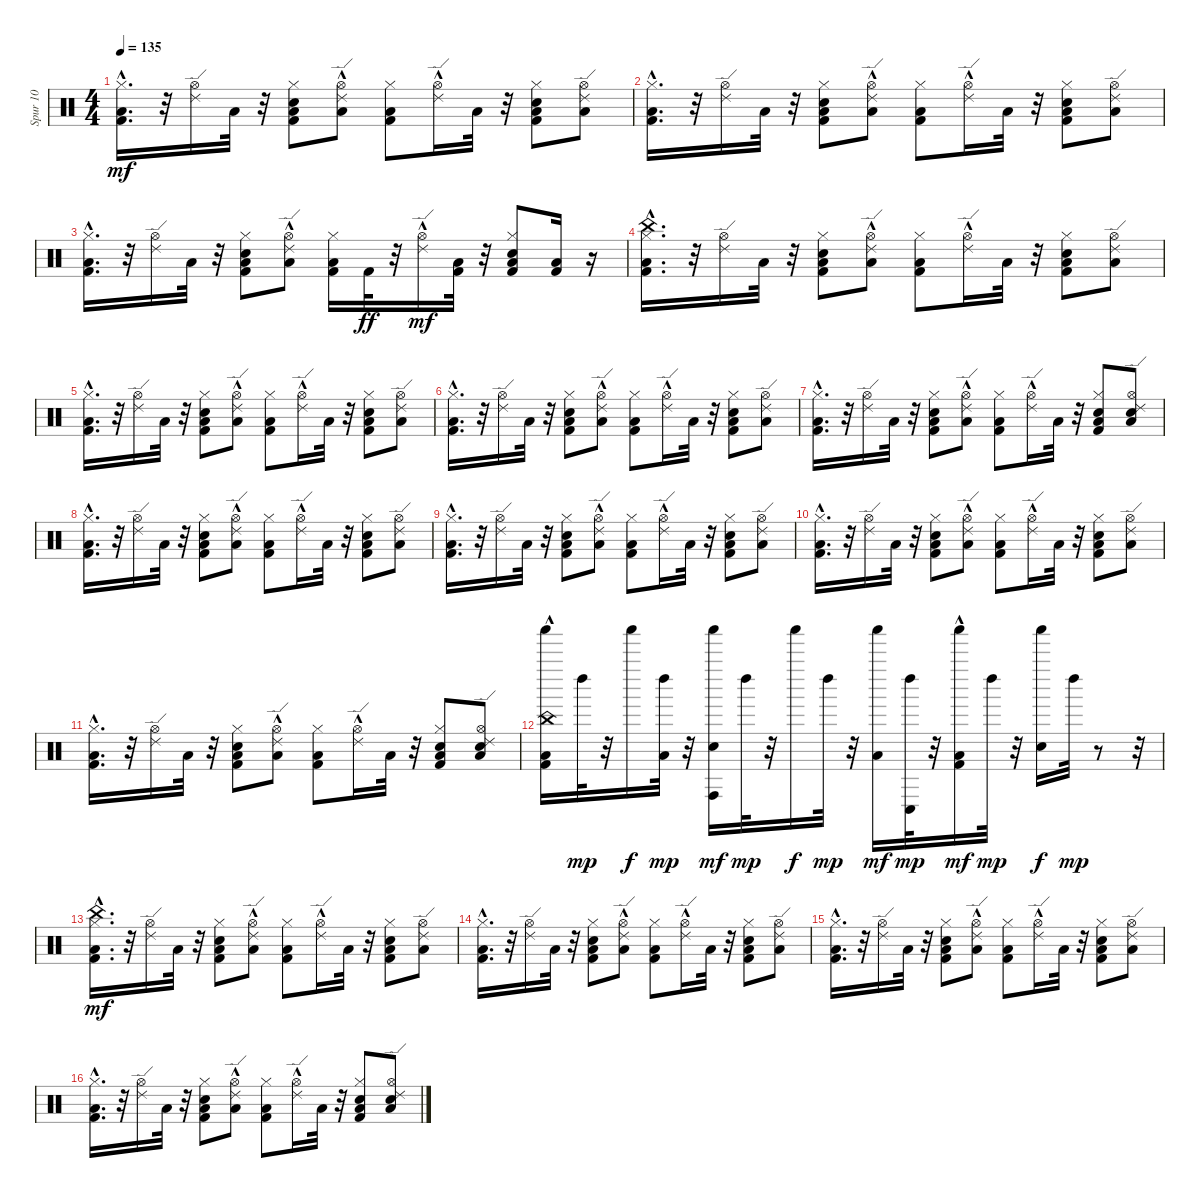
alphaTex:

\track ("Spur 10" "Spur 10") {instrument percussion}
\staff {score}
\articulation defaults
\ts (4 4)
\tempo 135
\clef neutral
\ks c
("Kick (hit) 2" "Low Tom (hit)" "Hi-Hat (closed)"{hac}).16{d dy mf} r.32 ("Ride (edge) 2" "Hi-Hat (open)").16 "Low Tom (hit)".32 r.32 ("Kick (hit) 2" "Hand Clap (hit)" "Low Tom (hit)" "Hi-Hat (closed)").8 ("Low Tom (hit)" "Hi-Hat (open)" "Ride (edge) 2"{hac}).8 ("Kick (hit) 2" "Low Tom (hit)" "Hi-Hat (closed)").8 ("Hi-Hat (open)" "Ride (edge) 2"{hac}).16 "Low Tom (hit)".32 r.32 ("Kick (hit) 2" "Hand Clap (hit)" "Low Tom (hit)" "Hi-Hat (closed)").8 ("Low Tom (hit)" "Hi-Hat (open)" "Ride (edge) 2").8 |
("Kick (hit) 2" "Low Tom (hit)" "Hi-Hat (closed)"{hac}).16{d} r.32 ("Ride (edge) 2" "Hi-Hat (open)").16 "Low Tom (hit)".32 r.32 ("Kick (hit) 2" "Hand Clap (hit)" "Low Tom (hit)" "Hi-Hat (closed)").8 ("Low Tom (hit)" "Hi-Hat (open)" "Ride (edge) 2"{hac}).8 ("Kick (hit) 2" "Low Tom (hit)" "Hi-Hat (closed)").8 ("Hi-Hat (open)" "Ride (edge) 2"{hac}).16 "Low Tom (hit)".32 r.32 ("Kick (hit) 2" "Hand Clap (hit)" "Low Tom (hit)" "Hi-Hat (closed)").8 ("Low Tom (hit)" "Hi-Hat (open)" "Ride (edge) 2").8 |
("Kick (hit) 2" "Low Tom (hit)" "Hi-Hat (closed)"{hac}).16{d} r.32 ("Ride (edge) 2" "Hi-Hat (open)").16 "Low Tom (hit)".32 r.32 ("Kick (hit) 2" "Hand Clap (hit)" "Low Tom (hit)" "Hi-Hat (closed)").8 ("Low Tom (hit)" "Hi-Hat (open)" "Ride (edge) 2"{hac}).8 ("Kick (hit) 2" "Low Tom (hit)" "Hi-Hat (closed)").16 "Kick (hit) 2".32{dy ff} r.32 ("Hi-Hat (open)" "Ride (edge) 2"{hac}).16{dy mf} ("Kick (hit) 2" "Low Tom (hit)").32 r.32 ("Kick (hit) 2" "Hand Clap (hit)" "Low Tom (hit)" "Hi-Hat (closed)").8 ("Kick (hit) 2" "Low Tom (hit)").16 r.16 |
("Kick (hit) 2" "Low Tom (hit)" "Hi-Hat (closed)"{hac} "China (hit)").16{d} r.32 ("Ride (edge) 2" "Hi-Hat (open)").16 "Low Tom (hit)".32 r.32 ("Kick (hit) 2" "Hand Clap (hit)" "Low Tom (hit)" "Hi-Hat (closed)").8 ("Low Tom (hit)" "Hi-Hat (open)" "Ride (edge) 2"{hac}).8 ("Kick (hit) 2" "Low Tom (hit)" "Hi-Hat (closed)").8 ("Hi-Hat (open)" "Ride (edge) 2"{hac}).16 "Low Tom (hit)".32 r.32 ("Kick (hit) 2" "Hand Clap (hit)" "Low Tom (hit)" "Hi-Hat (closed)").8 ("Low Tom (hit)" "Hi-Hat (open)" "Ride (edge) 2").8 |
("Kick (hit) 2" "Low Tom (hit)" "Hi-Hat (closed)"{hac}).16{d} r.32 ("Ride (edge) 2" "Hi-Hat (open)").16 "Low Tom (hit)".32 r.32 ("Kick (hit) 2" "Hand Clap (hit)" "Low Tom (hit)" "Hi-Hat (closed)").8 ("Low Tom (hit)" "Hi-Hat (open)" "Ride (edge) 2"{hac}).8 ("Kick (hit) 2" "Low Tom (hit)" "Hi-Hat (closed)").8 ("Hi-Hat (open)" "Ride (edge) 2"{hac}).16 "Low Tom (hit)".32 r.32 ("Kick (hit) 2" "Hand Clap (hit)" "Low Tom (hit)" "Hi-Hat (closed)").8 ("Low Tom (hit)" "Hi-Hat (open)" "Ride (edge) 2").8 |
("Kick (hit) 2" "Low Tom (hit)" "Hi-Hat (closed)"{hac}).16{d} r.32 ("Ride (edge) 2" "Hi-Hat (open)").16 "Low Tom (hit)".32 r.32 ("Kick (hit) 2" "Hand Clap (hit)" "Low Tom (hit)" "Hi-Hat (closed)").8 ("Low Tom (hit)" "Hi-Hat (open)" "Ride (edge) 2"{hac}).8 ("Kick (hit) 2" "Low Tom (hit)" "Hi-Hat (closed)").8 ("Hi-Hat (open)" "Ride (edge) 2"{hac}).16 "Low Tom (hit)".32 r.32 ("Kick (hit) 2" "Hand Clap (hit)" "Low Tom (hit)" "Hi-Hat (closed)").8 ("Low Tom (hit)" "Hi-Hat (open)" "Ride (edge) 2").8 |
("Kick (hit) 2" "Low Tom (hit)" "Hi-Hat (closed)"{hac}).16{d} r.32 ("Ride (edge) 2" "Hi-Hat (open)").16 "Low Tom (hit)".32 r.32 ("Kick (hit) 2" "Hand Clap (hit)" "Low Tom (hit)" "Hi-Hat (closed)").8 ("Low Tom (hit)" "Hi-Hat (open)" "Ride (edge) 2"{hac}).8 ("Kick (hit) 2" "Low Tom (hit)" "Hi-Hat (closed)").8 ("Hi-Hat (open)" "Ride (edge) 2"{hac}).16 "Low Tom (hit)".32 r.32 ("Kick (hit) 2" "Hand Clap (hit)" "Low Tom (hit)" "Hi-Hat (closed)").8 ("Hand Clap (hit)" "Low Tom (hit)" "Hi-Hat (open)" "Ride (edge) 2").8 |
("Kick (hit) 2" "Low Tom (hit)" "Hi-Hat (closed)"{hac}).16{d} r.32 ("Ride (edge) 2" "Hi-Hat (open)").16 "Low Tom (hit)".32 r.32 ("Kick (hit) 2" "Hand Clap (hit)" "Low Tom (hit)" "Hi-Hat (closed)").8 ("Low Tom (hit)" "Hi-Hat (open)" "Ride (edge) 2"{hac}).8 ("Kick (hit) 2" "Low Tom (hit)" "Hi-Hat (closed)").8 ("Hi-Hat (open)" "Ride (edge) 2"{hac}).16 "Low Tom (hit)".32 r.32 ("Kick (hit) 2" "Hand Clap (hit)" "Low Tom (hit)" "Hi-Hat (closed)").8 ("Low Tom (hit)" "Hi-Hat (open)" "Ride (edge) 2").8 |
("Kick (hit) 2" "Low Tom (hit)" "Hi-Hat (closed)"{hac}).16{d} r.32 ("Ride (edge) 2" "Hi-Hat (open)").16 "Low Tom (hit)".32 r.32 ("Kick (hit) 2" "Hand Clap (hit)" "Low Tom (hit)" "Hi-Hat (closed)").8 ("Low Tom (hit)" "Hi-Hat (open)" "Ride (edge) 2"{hac}).8 ("Kick (hit) 2" "Low Tom (hit)" "Hi-Hat (closed)").8 ("Hi-Hat (open)" "Ride (edge) 2"{hac}).16 "Low Tom (hit)".32 r.32 ("Kick (hit) 2" "Hand Clap (hit)" "Low Tom (hit)" "Hi-Hat (closed)").8 ("Low Tom (hit)" "Hi-Hat (open)" "Ride (edge) 2").8 |
("Kick (hit) 2" "Low Tom (hit)" "Hi-Hat (closed)"{hac}).16{d} r.32 ("Ride (edge) 2" "Hi-Hat (open)").16 "Low Tom (hit)".32 r.32 ("Kick (hit) 2" "Hand Clap (hit)" "Low Tom (hit)" "Hi-Hat (closed)").8 ("Low Tom (hit)" "Hi-Hat (open)" "Ride (edge) 2"{hac}).8 ("Kick (hit) 2" "Low Tom (hit)" "Hi-Hat (closed)").8 ("Hi-Hat (open)" "Ride (edge) 2"{hac}).16 "Low Tom (hit)".32 r.32 ("Kick (hit) 2" "Hand Clap (hit)" "Low Tom (hit)" "Hi-Hat (closed)").8 ("Low Tom (hit)" "Hi-Hat (open)" "Ride (edge) 2").8 |
("Kick (hit) 2" "Low Tom (hit)" "Hi-Hat (closed)"{hac}).16{d} r.32 ("Ride (edge) 2" "Hi-Hat (open)").16 "Low Tom (hit)".32 r.32 ("Kick (hit) 2" "Hand Clap (hit)" "Low Tom (hit)" "Hi-Hat (closed)").8 ("Low Tom (hit)" "Hi-Hat (open)" "Ride (edge) 2"{hac}).8 ("Kick (hit) 2" "Low Tom (hit)" "Hi-Hat (closed)").8 ("Hi-Hat (open)" "Ride (edge) 2"{hac}).16 "Low Tom (hit)".32 r.32 ("Kick (hit) 2" "Hand Clap (hit)" "Low Tom (hit)" "Hi-Hat (closed)").8 ("Hand Clap (hit)" "Low Tom (hit)" "Hi-Hat (open)" "Ride (edge) 2").8 |
("Kick (hit) 2"{hac} "Low Tom (hit)" "China (hit)" "Shaker (hit)").16 "Left Maraca (hit)".32{dy mp} r.32 "Shaker (hit)".16{dy f} ("Low Tom (hit)" "Left Maraca (hit)").32{dy mp} r.32 ("Conga high (hit)" "Hand Clap (hit)" "Shaker (hit)").16{dy mf} "Left Maraca (hit)".32{dy mp} r.32 "Shaker (hit)".16{dy f} "Left Maraca (hit)".32{dy mp} r.32 ("Low Tom (hit)" "Shaker (hit)").16{dy mf} ("Conga low (hit)" "Left Maraca (hit)").32{dy mp} r.32 ("Kick (hit) 2"{hac} "Low Tom (hit)" "Shaker (hit)").16{dy mf} "Left Maraca (hit)".32{dy mp} r.32 ("Hand Clap (hit)" "Shaker (hit)").16{dy f} "Left Maraca (hit)".32{dy mp} r.8 r.32 |
("Kick (hit) 2" "Low Tom (hit)" "Hi-Hat (closed)"{hac} "China (hit)").16{d dy mf} r.32 ("Ride (edge) 2" "Hi-Hat (open)").16 "Low Tom (hit)".32 r.32 ("Kick (hit) 2" "Hand Clap (hit)" "Low Tom (hit)" "Hi-Hat (closed)").8 ("Low Tom (hit)" "Hi-Hat (open)" "Ride (edge) 2"{hac}).8 ("Kick (hit) 2" "Low Tom (hit)" "Hi-Hat (closed)").8 ("Hi-Hat (open)" "Ride (edge) 2"{hac}).16 "Low Tom (hit)".32 r.32 ("Kick (hit) 2" "Hand Clap (hit)" "Low Tom (hit)" "Hi-Hat (closed)").8 ("Low Tom (hit)" "Hi-Hat (open)" "Ride (edge) 2").8 |
("Kick (hit) 2" "Low Tom (hit)" "Hi-Hat (closed)"{hac}).16{d} r.32 ("Ride (edge) 2" "Hi-Hat (open)").16 "Low Tom (hit)".32 r.32 ("Kick (hit) 2" "Hand Clap (hit)" "Low Tom (hit)" "Hi-Hat (closed)").8 ("Low Tom (hit)" "Hi-Hat (open)" "Ride (edge) 2"{hac}).8 ("Kick (hit) 2" "Low Tom (hit)" "Hi-Hat (closed)").8 ("Hi-Hat (open)" "Ride (edge) 2"{hac}).16 "Low Tom (hit)".32 r.32 ("Kick (hit) 2" "Hand Clap (hit)" "Low Tom (hit)" "Hi-Hat (closed)").8 ("Low Tom (hit)" "Hi-Hat (open)" "Ride (edge) 2").8 |
("Kick (hit) 2" "Low Tom (hit)" "Hi-Hat (closed)"{hac}).16{d} r.32 ("Ride (edge) 2" "Hi-Hat (open)").16 "Low Tom (hit)".32 r.32 ("Kick (hit) 2" "Hand Clap (hit)" "Low Tom (hit)" "Hi-Hat (closed)").8 ("Low Tom (hit)" "Hi-Hat (open)" "Ride (edge) 2"{hac}).8 ("Kick (hit) 2" "Low Tom (hit)" "Hi-Hat (closed)").8 ("Hi-Hat (open)" "Ride (edge) 2"{hac}).16 "Low Tom (hit)".32 r.32 ("Kick (hit) 2" "Hand Clap (hit)" "Low Tom (hit)" "Hi-Hat (closed)").8 ("Low Tom (hit)" "Hi-Hat (open)" "Ride (edge) 2").8 |
("Kick (hit) 2" "Low Tom (hit)" "Hi-Hat (closed)"{hac}).16{d} r.32 ("Ride (edge) 2" "Hi-Hat (open)").16 "Low Tom (hit)".32 r.32 ("Kick (hit) 2" "Hand Clap (hit)" "Low Tom (hit)" "Hi-Hat (closed)").8 ("Low Tom (hit)" "Hi-Hat (open)" "Ride (edge) 2"{hac}).8 ("Kick (hit) 2" "Low Tom (hit)" "Hi-Hat (closed)").8 ("Hi-Hat (open)" "Ride (edge) 2"{hac}).16 "Low Tom (hit)".32 r.32 ("Kick (hit) 2" "Hand Clap (hit)" "Low Tom (hit)" "Hi-Hat (closed)").8 ("Hand Clap (hit)" "Low Tom (hit)" "Hi-Hat (open)" "Ride (edge) 2").8
